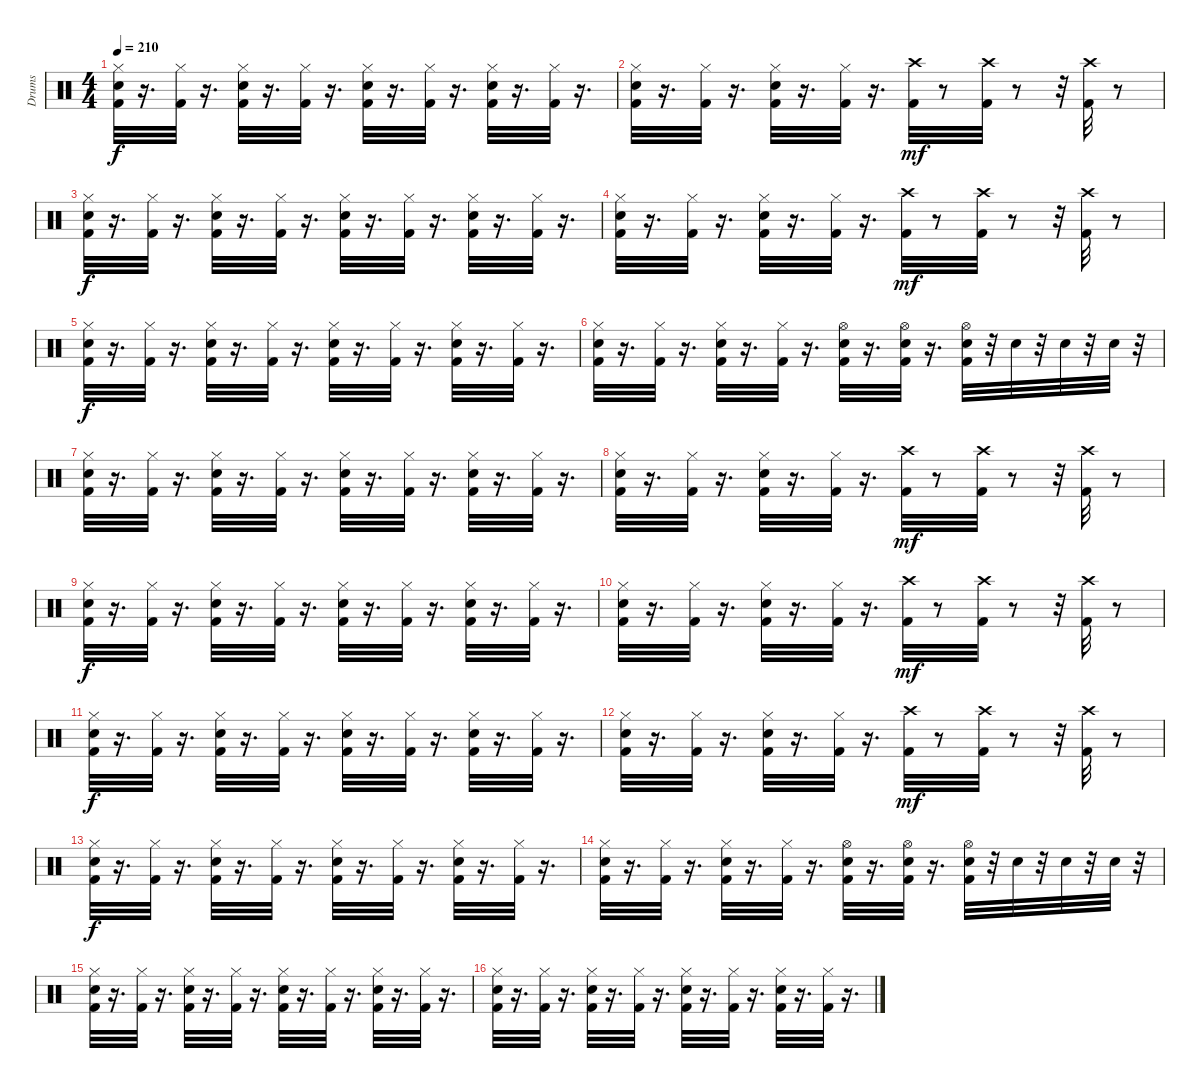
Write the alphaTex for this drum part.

\track ("Drums" "Drums") {instrument percussion}
\staff {score}
\articulation defaults
\ts (4 4)
\tempo 210
\clef neutral
\ks c
("Kick (hit) 2" "Snare (hit) 2" "Hi-Hat (closed)").32{dy f} r.16{d} ("Kick (hit) 2" "Hi-Hat (closed)").32 r.16{d} ("Kick (hit) 2" "Snare (hit) 2" "Hi-Hat (closed)").32 r.16{d} ("Kick (hit) 2" "Hi-Hat (closed)").32 r.16{d} ("Kick (hit) 2" "Snare (hit) 2" "Hi-Hat (closed)").32 r.16{d} ("Kick (hit) 2" "Hi-Hat (closed)").32 r.16{d} ("Kick (hit) 2" "Snare (hit) 2" "Hi-Hat (closed)").32 r.16{d} ("Kick (hit) 2" "Hi-Hat (closed)").32 r.16{d} |
("Kick (hit) 2" "Snare (hit) 2" "Hi-Hat (closed)").32 r.16{d} ("Kick (hit) 2" "Hi-Hat (closed)").32 r.16{d} ("Kick (hit) 2" "Snare (hit) 2" "Hi-Hat (closed)").32 r.16{d} ("Kick (hit) 2" "Hi-Hat (closed)").32 r.16{d} ("Kick (hit) 2" "Crash high (hit)").32{dy mf} r.8 ("Kick (hit) 2" "Crash high (hit)").32 r.8 r.32 ("Kick (hit) 2" "Crash high (hit)").32 r.8 |
("Kick (hit) 2" "Snare (hit) 2" "Hi-Hat (closed)").32{dy f} r.16{d} ("Kick (hit) 2" "Hi-Hat (closed)").32 r.16{d} ("Kick (hit) 2" "Snare (hit) 2" "Hi-Hat (closed)").32 r.16{d} ("Kick (hit) 2" "Hi-Hat (closed)").32 r.16{d} ("Kick (hit) 2" "Snare (hit) 2" "Hi-Hat (closed)").32 r.16{d} ("Kick (hit) 2" "Hi-Hat (closed)").32 r.16{d} ("Kick (hit) 2" "Snare (hit) 2" "Hi-Hat (closed)").32 r.16{d} ("Kick (hit) 2" "Hi-Hat (closed)").32 r.16{d} |
("Kick (hit) 2" "Snare (hit) 2" "Hi-Hat (closed)").32 r.16{d} ("Kick (hit) 2" "Hi-Hat (closed)").32 r.16{d} ("Kick (hit) 2" "Snare (hit) 2" "Hi-Hat (closed)").32 r.16{d} ("Kick (hit) 2" "Hi-Hat (closed)").32 r.16{d} ("Kick (hit) 2" "Crash high (hit)").32{dy mf} r.8 ("Kick (hit) 2" "Crash high (hit)").32 r.8 r.32 ("Kick (hit) 2" "Crash high (hit)").32 r.8 |
("Kick (hit) 2" "Snare (hit) 2" "Hi-Hat (closed)").32{dy f} r.16{d} ("Kick (hit) 2" "Hi-Hat (closed)").32 r.16{d} ("Kick (hit) 2" "Snare (hit) 2" "Hi-Hat (closed)").32 r.16{d} ("Kick (hit) 2" "Hi-Hat (closed)").32 r.16{d} ("Kick (hit) 2" "Snare (hit) 2" "Hi-Hat (closed)").32 r.16{d} ("Kick (hit) 2" "Hi-Hat (closed)").32 r.16{d} ("Kick (hit) 2" "Snare (hit) 2" "Hi-Hat (closed)").32 r.16{d} ("Kick (hit) 2" "Hi-Hat (closed)").32 r.16{d} |
("Kick (hit) 2" "Snare (hit) 2" "Hi-Hat (closed)").32 r.16{d} ("Kick (hit) 2" "Hi-Hat (closed)").32 r.16{d} ("Kick (hit) 2" "Snare (hit) 2" "Hi-Hat (closed)").32 r.16{d} ("Kick (hit) 2" "Hi-Hat (closed)").32 r.16{d} ("Kick (hit) 2" "Snare (hit) 2" "Hi-Hat (open)").32 r.16{d} ("Kick (hit) 2" "Snare (hit) 2" "Hi-Hat (open)").32 r.16{d} ("Kick (hit) 2" "Snare (hit) 2" "Hi-Hat (open)").32 r.32 "Snare (hit) 2".32 r.32 "Snare (hit) 2".32 r.32 "Snare (hit) 2".32 r.32 |
("Kick (hit) 2" "Snare (hit) 2" "Hi-Hat (closed)").32 r.16{d} ("Kick (hit) 2" "Hi-Hat (closed)").32 r.16{d} ("Kick (hit) 2" "Snare (hit) 2" "Hi-Hat (closed)").32 r.16{d} ("Kick (hit) 2" "Hi-Hat (closed)").32 r.16{d} ("Kick (hit) 2" "Snare (hit) 2" "Hi-Hat (closed)").32 r.16{d} ("Kick (hit) 2" "Hi-Hat (closed)").32 r.16{d} ("Kick (hit) 2" "Snare (hit) 2" "Hi-Hat (closed)").32 r.16{d} ("Kick (hit) 2" "Hi-Hat (closed)").32 r.16{d} |
("Kick (hit) 2" "Snare (hit) 2" "Hi-Hat (closed)").32 r.16{d} ("Kick (hit) 2" "Hi-Hat (closed)").32 r.16{d} ("Kick (hit) 2" "Snare (hit) 2" "Hi-Hat (closed)").32 r.16{d} ("Kick (hit) 2" "Hi-Hat (closed)").32 r.16{d} ("Kick (hit) 2" "Crash high (hit)").32{dy mf} r.8 ("Kick (hit) 2" "Crash high (hit)").32 r.8 r.32 ("Kick (hit) 2" "Crash high (hit)").32 r.8 |
("Kick (hit) 2" "Snare (hit) 2" "Hi-Hat (closed)").32{dy f} r.16{d} ("Kick (hit) 2" "Hi-Hat (closed)").32 r.16{d} ("Kick (hit) 2" "Snare (hit) 2" "Hi-Hat (closed)").32 r.16{d} ("Kick (hit) 2" "Hi-Hat (closed)").32 r.16{d} ("Kick (hit) 2" "Snare (hit) 2" "Hi-Hat (closed)").32 r.16{d} ("Kick (hit) 2" "Hi-Hat (closed)").32 r.16{d} ("Kick (hit) 2" "Snare (hit) 2" "Hi-Hat (closed)").32 r.16{d} ("Kick (hit) 2" "Hi-Hat (closed)").32 r.16{d} |
("Kick (hit) 2" "Snare (hit) 2" "Hi-Hat (closed)").32 r.16{d} ("Kick (hit) 2" "Hi-Hat (closed)").32 r.16{d} ("Kick (hit) 2" "Snare (hit) 2" "Hi-Hat (closed)").32 r.16{d} ("Kick (hit) 2" "Hi-Hat (closed)").32 r.16{d} ("Kick (hit) 2" "Crash high (hit)").32{dy mf} r.8 ("Kick (hit) 2" "Crash high (hit)").32 r.8 r.32 ("Kick (hit) 2" "Crash high (hit)").32 r.8 |
("Kick (hit) 2" "Snare (hit) 2" "Hi-Hat (closed)").32{dy f} r.16{d} ("Kick (hit) 2" "Hi-Hat (closed)").32 r.16{d} ("Kick (hit) 2" "Snare (hit) 2" "Hi-Hat (closed)").32 r.16{d} ("Kick (hit) 2" "Hi-Hat (closed)").32 r.16{d} ("Kick (hit) 2" "Snare (hit) 2" "Hi-Hat (closed)").32 r.16{d} ("Kick (hit) 2" "Hi-Hat (closed)").32 r.16{d} ("Kick (hit) 2" "Snare (hit) 2" "Hi-Hat (closed)").32 r.16{d} ("Kick (hit) 2" "Hi-Hat (closed)").32 r.16{d} |
("Kick (hit) 2" "Snare (hit) 2" "Hi-Hat (closed)").32 r.16{d} ("Kick (hit) 2" "Hi-Hat (closed)").32 r.16{d} ("Kick (hit) 2" "Snare (hit) 2" "Hi-Hat (closed)").32 r.16{d} ("Kick (hit) 2" "Hi-Hat (closed)").32 r.16{d} ("Kick (hit) 2" "Crash high (hit)").32{dy mf} r.8 ("Kick (hit) 2" "Crash high (hit)").32 r.8 r.32 ("Kick (hit) 2" "Crash high (hit)").32 r.8 |
("Kick (hit) 2" "Snare (hit) 2" "Hi-Hat (closed)").32{dy f} r.16{d} ("Kick (hit) 2" "Hi-Hat (closed)").32 r.16{d} ("Kick (hit) 2" "Snare (hit) 2" "Hi-Hat (closed)").32 r.16{d} ("Kick (hit) 2" "Hi-Hat (closed)").32 r.16{d} ("Kick (hit) 2" "Snare (hit) 2" "Hi-Hat (closed)").32 r.16{d} ("Kick (hit) 2" "Hi-Hat (closed)").32 r.16{d} ("Kick (hit) 2" "Snare (hit) 2" "Hi-Hat (closed)").32 r.16{d} ("Kick (hit) 2" "Hi-Hat (closed)").32 r.16{d} |
("Kick (hit) 2" "Snare (hit) 2" "Hi-Hat (closed)").32 r.16{d} ("Kick (hit) 2" "Hi-Hat (closed)").32 r.16{d} ("Kick (hit) 2" "Snare (hit) 2" "Hi-Hat (closed)").32 r.16{d} ("Kick (hit) 2" "Hi-Hat (closed)").32 r.16{d} ("Kick (hit) 2" "Snare (hit) 2" "Hi-Hat (open)").32 r.16{d} ("Kick (hit) 2" "Snare (hit) 2" "Hi-Hat (open)").32 r.16{d} ("Kick (hit) 2" "Snare (hit) 2" "Hi-Hat (open)").32 r.32 "Snare (hit) 2".32 r.32 "Snare (hit) 2".32 r.32 "Snare (hit) 2".32 r.32 |
("Kick (hit) 2" "Snare (hit) 2" "Hi-Hat (closed)").32 r.16{d} ("Kick (hit) 2" "Hi-Hat (closed)").32 r.16{d} ("Kick (hit) 2" "Snare (hit) 2" "Hi-Hat (closed)").32 r.16{d} ("Kick (hit) 2" "Hi-Hat (closed)").32 r.16{d} ("Kick (hit) 2" "Snare (hit) 2" "Hi-Hat (closed)").32 r.16{d} ("Kick (hit) 2" "Hi-Hat (closed)").32 r.16{d} ("Kick (hit) 2" "Snare (hit) 2" "Hi-Hat (closed)").32 r.16{d} ("Kick (hit) 2" "Hi-Hat (closed)").32 r.16{d} |
("Kick (hit) 2" "Snare (hit) 2" "Hi-Hat (closed)").32 r.16{d} ("Kick (hit) 2" "Hi-Hat (closed)").32 r.16{d} ("Kick (hit) 2" "Snare (hit) 2" "Hi-Hat (closed)").32 r.16{d} ("Kick (hit) 2" "Hi-Hat (closed)").32 r.16{d} ("Kick (hit) 2" "Snare (hit) 2" "Hi-Hat (closed)").32 r.16{d} ("Kick (hit) 2" "Hi-Hat (closed)").32 r.16{d} ("Kick (hit) 2" "Snare (hit) 2" "Hi-Hat (closed)").32 r.16{d} ("Kick (hit) 2" "Hi-Hat (closed)").32 r.16{d}
